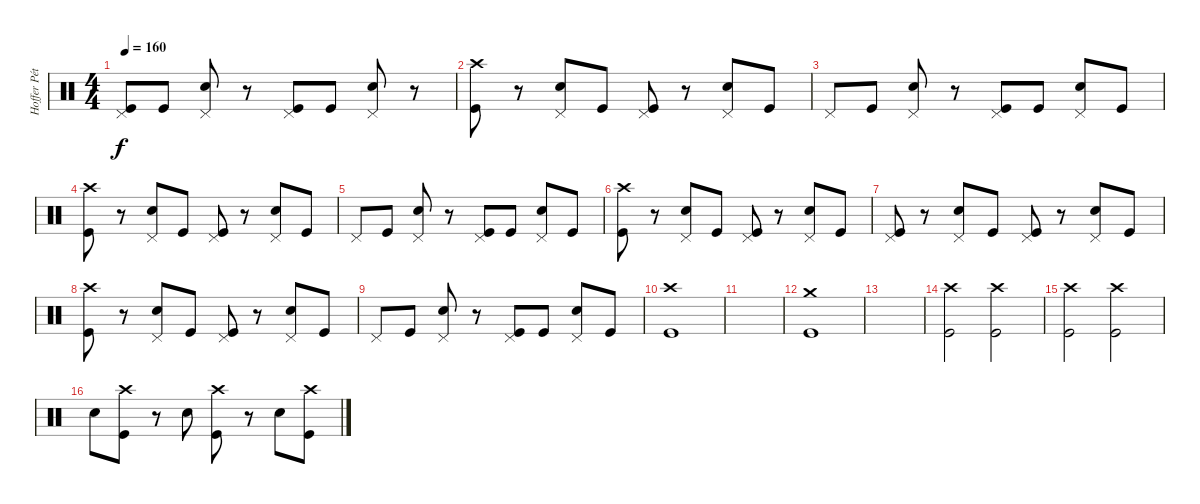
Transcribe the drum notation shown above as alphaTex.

\track ("Hoffer Péter" "Hoffer Pét") {instrument percussion}
\staff {score}
\articulation defaults
\ts (4 4)
\tempo 160
\clef neutral
\ks c
("Pedal Hi-Hat (hit)" "Kick (hit)").8{dy f} "Kick (hit)".8 ("Pedal Hi-Hat (hit)" "Electric Snare (hit)").8 r.8 ("Pedal Hi-Hat (hit)" "Kick (hit)").8 "Kick (hit)".8 ("Pedal Hi-Hat (hit)" "Electric Snare (hit)").8 r.8 |
("Crash high (hit)" "Kick (hit)").8 r.8 ("Pedal Hi-Hat (hit)" "Electric Snare (hit)").8 "Kick (hit)".8 ("Pedal Hi-Hat (hit)" "Kick (hit)").8 r.8 ("Pedal Hi-Hat (hit)" "Electric Snare (hit)").8 "Kick (hit)".8 |
"Pedal Hi-Hat (hit)".8 "Kick (hit)".8 ("Pedal Hi-Hat (hit)" "Electric Snare (hit)").8 r.8 ("Pedal Hi-Hat (hit)" "Kick (hit)").8 "Kick (hit)".8 ("Pedal Hi-Hat (hit)" "Electric Snare (hit)").8 "Kick (hit)".8 |
("Crash high (hit)" "Kick (hit)").8 r.8 ("Pedal Hi-Hat (hit)" "Electric Snare (hit)").8 "Kick (hit)".8 ("Pedal Hi-Hat (hit)" "Kick (hit)").8 r.8 ("Pedal Hi-Hat (hit)" "Electric Snare (hit)").8 "Kick (hit)".8 |
"Pedal Hi-Hat (hit)".8 "Kick (hit)".8 ("Pedal Hi-Hat (hit)" "Electric Snare (hit)").8 r.8 ("Pedal Hi-Hat (hit)" "Kick (hit)").8 "Kick (hit)".8 ("Pedal Hi-Hat (hit)" "Electric Snare (hit)").8 "Kick (hit)".8 |
("Crash high (hit)" "Kick (hit)").8 r.8 ("Pedal Hi-Hat (hit)" "Electric Snare (hit)").8 "Kick (hit)".8 ("Pedal Hi-Hat (hit)" "Kick (hit)").8 r.8 ("Pedal Hi-Hat (hit)" "Electric Snare (hit)").8 "Kick (hit)".8 |
("Pedal Hi-Hat (hit)" "Kick (hit)").8 r.8 ("Pedal Hi-Hat (hit)" "Electric Snare (hit)").8 "Kick (hit)".8 ("Pedal Hi-Hat (hit)" "Kick (hit)").8 r.8 ("Pedal Hi-Hat (hit)" "Electric Snare (hit)").8 "Kick (hit)".8 |
("Crash high (hit)" "Kick (hit)").8 r.8 ("Pedal Hi-Hat (hit)" "Electric Snare (hit)").8 "Kick (hit)".8 ("Pedal Hi-Hat (hit)" "Kick (hit)").8 r.8 ("Pedal Hi-Hat (hit)" "Electric Snare (hit)").8 "Kick (hit)".8 |
"Pedal Hi-Hat (hit)".8 "Kick (hit)".8 ("Pedal Hi-Hat (hit)" "Electric Snare (hit)").8 r.8 ("Pedal Hi-Hat (hit)" "Kick (hit)").8 "Kick (hit)".8 ("Pedal Hi-Hat (hit)" "Electric Snare (hit)").8 "Kick (hit)".8 |
("Crash high (hit)" "Kick (hit)").1 |
|
("Crash medium (hit)" "Kick (hit)").1 |
|
("Crash high (hit)" "Kick (hit)").2 ("Crash high (hit)" "Kick (hit)").2 |
("Crash high (hit)" "Kick (hit)").2 ("Crash high (hit)" "Kick (hit)").2 |
"Electric Snare (hit)".8 ("Crash high (hit)" "Kick (hit)").8 r.8 "Electric Snare (hit)".8 ("Crash high (hit)" "Kick (hit)").8 r.8 "Electric Snare (hit)".8 ("Crash high (hit)" "Kick (hit)").8
